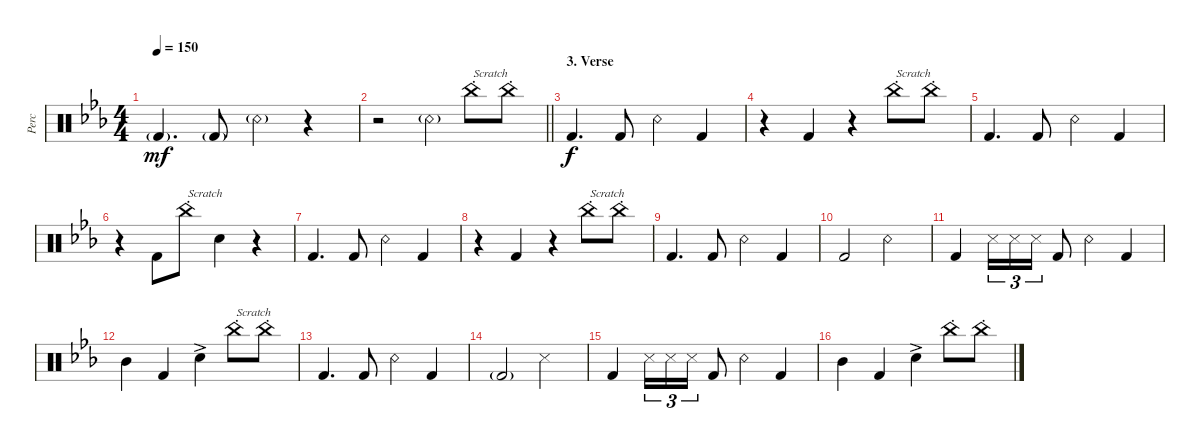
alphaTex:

\defaultSystemsLayout 4
\bracketExtendMode groupsimilarinstruments
\otherSystemsTrackNameOrientation horizontal
\track ("Percussion" "Perc") {instrument percussion}
\staff {score}
\articulation defaults
\ts (4 4)
\tempo 150
\clef neutral
\ks cminor "Kick (hit) 2"{g acc forcenatural}.4{d dy mf beam Up} "Kick (hit) 2"{g acc forcenatural}.8{beam Up} "Snare (rim shot)"{g acc forcenatural}.4{beam Down}
r.4{beam Down} |
\barLineRight lightlight
r.2{beam Down} "Snare (rim shot)"{g acc forcenatural}.4{beam Down} "China (hit)"{st acc forcenatural}.8{txt "Scratch" beam Down} "China (hit)"{st acc forcenatural}.8{beam Down} |
\section ("" "3. Verse")
"Kick (hit) 2"{acc forcenatural}.4{d dy f beam Up} "Kick (hit) 2"{acc forcenatural}.8{beam Up} "Snare (rim shot)"{acc forcenatural}.4{beam Down} "Kick (hit) 2"{acc forcenatural}.4{beam Up} |
r.4{beam Down} "Kick (hit) 2"{acc forcenatural}.4{beam Up} r.4{beam Up} "China (hit)"{st acc forcenatural}.8{txt "Scratch" beam Down} "China (hit)"{st acc forcenatural}.8{beam Down} |
"Kick (hit) 2"{acc forcenatural}.4{d beam Up} "Kick (hit) 2"{acc forcenatural}.8{beam Up} "Snare (rim shot)"{acc forcenatural}.4{beam Down} "Kick (hit) 2"{acc forcenatural}.4{beam Up} |
\scale
1.11324 r.4{beam Down} "Kick (hit) 2"{acc forcenatural}.8{beam Down} "China (hit)"{st acc forcenatural}.8{txt "Scratch" beam Down} "Snare (hit) 2"{acc forcenatural}.4{beam Down} r.4{beam Down} |
\scale
0.777385 "Kick (hit) 2"{acc forcenatural}.4{d beam Up} "Kick (hit) 2"{acc forcenatural}.8{beam Up} "Snare (rim shot)"{acc forcenatural}.4{beam Down} "Kick (hit) 2"{acc forcenatural}.4{beam Up} |
\scale
1.08529 r.4{beam Down} "Kick (hit) 2"{acc forcenatural}.4{beam Up} r.4{beam Up} "China (hit)"{st acc forcenatural}.8{txt "Scratch" beam Down} "China (hit)"{st acc forcenatural}.8{beam Down} |
\scale
1.02408 "Kick (hit) 2"{acc forcenatural}.4{d beam Up} "Kick (hit) 2"{acc forcenatural}.8{beam Up} "Snare (rim shot)"{acc forcenatural}.4{beam Down} "Kick (hit) 2"{acc forcenatural}.4{beam Up} |
"Kick (hit) 2"{acc forcenatural}.2{beam Up} "Snare (rim shot)"{acc forcenatural}.2{beam Down} |
"Kick (hit) 2"{acc forcenatural}.4{beam Up} "Snare (side stick) 3"{acc forcenatural}.16{tu (3 2) beam Down} "Snare (side stick) 3"{acc forcenatural}.16{tu (3 2) beam Down} "Snare (side stick) 3"{acc forcenatural}.16{tu (3 2) beam Down} "Kick (hit) 2"{acc forcenatural}.8{beam Up} "Snare (rim shot)"{acc forcenatural}.4{beam Down} "Kick (hit) 2"{acc forcenatural}.4{beam Up} |
"Mid Tom (hit)"{acc forcenatural}.4{beam Down} "Kick (hit) 2"{acc forcenatural}.4{beam Up} "Snare (hit) 2"{ac acc forcenatural}.4{beam Down} "China (hit)"{st acc forcenatural}.8{txt "Scratch" beam Down} "China (hit)"{st acc forcenatural}.8{beam Down} |
"Kick (hit) 2"{acc forcenatural}.4{d beam Up} "Kick (hit) 2"{acc forcenatural}.8{beam Up} "Snare (rim shot)"{acc forcenatural}.4{beam Down} "Kick (hit) 2"{acc forcenatural}.4{beam Up} |
"Kick (hit) 2"{g acc forcenatural}.2{beam Up} "Snare (side stick) 3"{acc forcenatural}.2{beam Down} |
\scale
1.72932 "Kick (hit) 2"{acc forcenatural}.4{beam Up} "Snare (side stick) 3"{acc forcenatural}.16{tu (3 2) beam Down} "Snare (side stick) 3"{acc forcenatural}.16{tu (3 2) beam Down} "Snare (side stick) 3"{acc forcenatural}.16{tu (3 2) beam Down} "Kick (hit) 2"{acc forcenatural}.8{beam Up} "Snare (rim shot)"{acc forcenatural}.4{beam Down} "Kick (hit) 2"{acc forcenatural}.4{beam Up} |
\scale
0.801916 "Mid Tom (hit)"{acc forcenatural}.4{beam Down} "Kick (hit) 2"{acc forcenatural}.4{beam Up} "Snare (hit) 2"{ac acc forcenatural}.4{beam Down} "China (hit)"{st acc forcenatural}.8{beam Down} "China (hit)"{st acc forcenatural}.8{beam Down}
